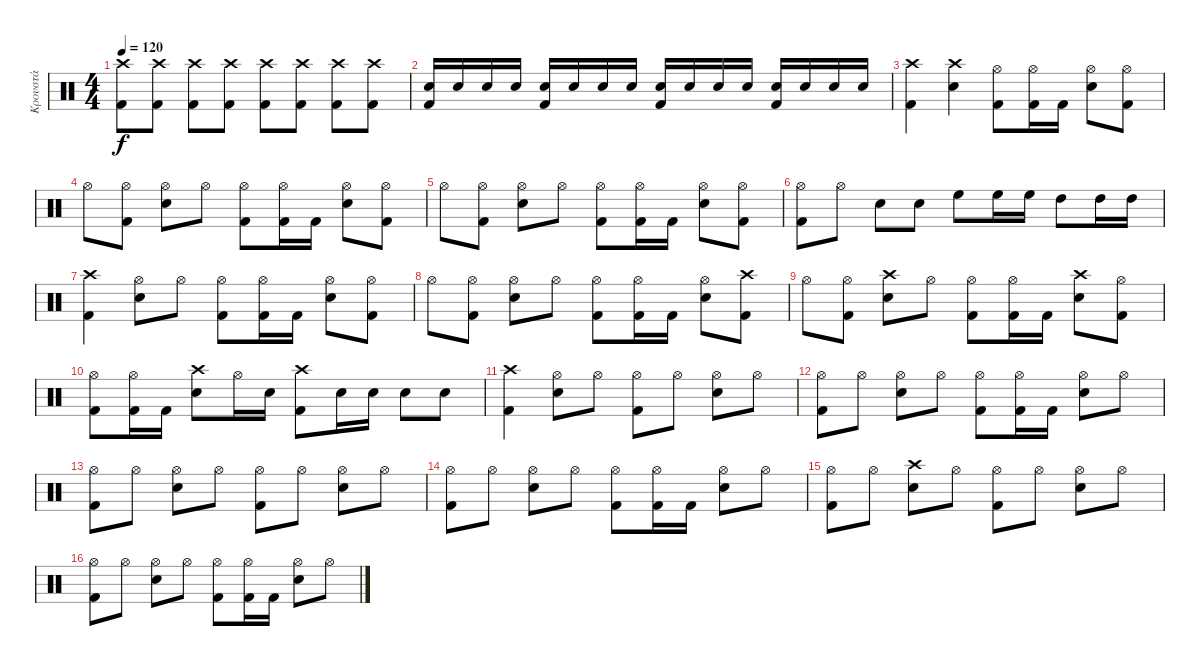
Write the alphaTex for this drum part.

\track ("Κρουστά" "Κρουστά") {instrument percussion}
\staff {score}
\articulation defaults
\ts (4 4)
\tempo 120
\clef neutral
\ks c
("Crash high (hit)" "Kick (hit) 2").8{dy f} ("Crash high (hit)" "Kick (hit) 2").8 ("Crash high (hit)" "Kick (hit) 2").8 ("Crash high (hit)" "Kick (hit) 2").8 ("Crash high (hit)" "Kick (hit) 2").8 ("Crash high (hit)" "Kick (hit) 2").8 ("Crash high (hit)" "Kick (hit) 2").8 ("Crash high (hit)" "Kick (hit) 2").8 |
("Electric Snare (hit)" "Kick (hit) 2").16 "Electric Snare (hit)".16 "Electric Snare (hit)".16 "Electric Snare (hit)".16 ("Electric Snare (hit)" "Kick (hit) 2").16 "Electric Snare (hit)".16 "Electric Snare (hit)".16 "Electric Snare (hit)".16 ("Electric Snare (hit)" "Kick (hit) 2").16 "Electric Snare (hit)".16 "Electric Snare (hit)".16 "Electric Snare (hit)".16 ("Electric Snare (hit)" "Kick (hit) 2").16 "Electric Snare (hit)".16 "Electric Snare (hit)".16 "Electric Snare (hit)".16 |
("Crash high (hit)" "Kick (hit) 2").4 ("Crash high (hit)" "Electric Snare (hit)").4 ("Hi-Hat (open)" "Kick (hit) 2").8 ("Hi-Hat (open)" "Kick (hit) 2").16 "Kick (hit) 2".16 ("Hi-Hat (open)" "Electric Snare (hit)").8 ("Hi-Hat (open)" "Kick (hit) 2").8 |
"Hi-Hat (open)".8 ("Hi-Hat (open)" "Kick (hit) 2").8 ("Hi-Hat (open)" "Electric Snare (hit)").8 "Hi-Hat (open)".8 ("Hi-Hat (open)" "Kick (hit) 2").8 ("Hi-Hat (open)" "Kick (hit) 2").16 "Kick (hit) 2".16 ("Hi-Hat (open)" "Electric Snare (hit)").8 ("Hi-Hat (open)" "Kick (hit) 2").8 |
"Hi-Hat (open)".8 ("Hi-Hat (open)" "Kick (hit) 2").8 ("Hi-Hat (open)" "Electric Snare (hit)").8 "Hi-Hat (open)".8 ("Hi-Hat (open)" "Kick (hit) 2").8 ("Hi-Hat (open)" "Kick (hit) 2").16 "Kick (hit) 2".16 ("Hi-Hat (open)" "Electric Snare (hit)").8 ("Hi-Hat (open)" "Kick (hit) 2").8 |
("Hi-Hat (open)" "Kick (hit) 2").8 "Hi-Hat (open)".8 "Electric Snare (hit)".8 "Electric Snare (hit)".8 "High Floor Tom (hit)".8 "High Floor Tom (hit)".16 "High Floor Tom (hit)".16 "High Tom (hit)".8 "High Tom (hit)".16 "High Tom (hit)".16 |
("Crash high (hit)" "Kick (hit) 2").4 ("Hi-Hat (open)" "Electric Snare (hit)").8 "Hi-Hat (open)".8 ("Hi-Hat (open)" "Kick (hit) 2").8 ("Hi-Hat (open)" "Kick (hit) 2").16 "Kick (hit) 2".16 ("Hi-Hat (open)" "Electric Snare (hit)").8 ("Hi-Hat (open)" "Kick (hit) 2").8 |
"Hi-Hat (open)".8 ("Hi-Hat (open)" "Kick (hit) 2").8 ("Hi-Hat (open)" "Electric Snare (hit)").8 "Hi-Hat (open)".8 ("Hi-Hat (open)" "Kick (hit) 2").8 ("Hi-Hat (open)" "Kick (hit) 2").16 "Kick (hit) 2".16 ("Hi-Hat (open)" "Electric Snare (hit)").8 ("Crash high (hit)" "Kick (hit) 2").8 |
"Hi-Hat (open)".8 ("Hi-Hat (open)" "Kick (hit) 2").8 ("Crash high (hit)" "Electric Snare (hit)").8 "Hi-Hat (open)".8 ("Hi-Hat (open)" "Kick (hit) 2").8 ("Hi-Hat (open)" "Kick (hit) 2").16 "Kick (hit) 2".16 ("Crash high (hit)" "Electric Snare (hit)").8 ("Hi-Hat (open)" "Kick (hit) 2").8 |
("Hi-Hat (open)" "Kick (hit) 2").8 ("Hi-Hat (open)" "Kick (hit) 2").16 "Kick (hit) 2".16 ("Crash high (hit)" "Electric Snare (hit)").8 "Hi-Hat (open)".16 "Electric Snare (hit)".16 ("Crash high (hit)" "Kick (hit) 2").8 "Electric Snare (hit)".16 "Electric Snare (hit)".16 "Electric Snare (hit)".8 "Electric Snare (hit)".8 |
("Crash high (hit)" "Kick (hit) 2").4 ("Hi-Hat (open)" "Electric Snare (hit)").8 "Hi-Hat (open)".8 ("Hi-Hat (open)" "Kick (hit) 2").8 "Hi-Hat (open)".8 ("Hi-Hat (open)" "Electric Snare (hit)").8 "Hi-Hat (open)".8 |
("Hi-Hat (open)" "Kick (hit) 2").8 "Hi-Hat (open)".8 ("Hi-Hat (open)" "Electric Snare (hit)").8 "Hi-Hat (open)".8 ("Hi-Hat (open)" "Kick (hit) 2").8 ("Hi-Hat (open)" "Kick (hit) 2").16 "Kick (hit) 2".16 ("Hi-Hat (open)" "Electric Snare (hit)").8 "Hi-Hat (open)".8 |
("Hi-Hat (open)" "Kick (hit) 2").8 "Hi-Hat (open)".8 ("Hi-Hat (open)" "Electric Snare (hit)").8 "Hi-Hat (open)".8 ("Hi-Hat (open)" "Kick (hit) 2").8 "Hi-Hat (open)".8 ("Hi-Hat (open)" "Electric Snare (hit)").8 "Hi-Hat (open)".8 |
("Hi-Hat (open)" "Kick (hit) 2").8 "Hi-Hat (open)".8 ("Hi-Hat (open)" "Electric Snare (hit)").8 "Hi-Hat (open)".8 ("Hi-Hat (open)" "Kick (hit) 2").8 ("Hi-Hat (open)" "Kick (hit) 2").16 "Kick (hit) 2".16 ("Hi-Hat (open)" "Electric Snare (hit)").8 "Hi-Hat (open)".8 |
("Hi-Hat (open)" "Kick (hit) 2").8 "Hi-Hat (open)".8 ("Crash high (hit)" "Electric Snare (hit)").8 "Hi-Hat (open)".8 ("Hi-Hat (open)" "Kick (hit) 2").8 "Hi-Hat (open)".8 ("Hi-Hat (open)" "Electric Snare (hit)").8 "Hi-Hat (open)".8 |
("Hi-Hat (open)" "Kick (hit) 2").8 "Hi-Hat (open)".8 ("Hi-Hat (open)" "Electric Snare (hit)").8 "Hi-Hat (open)".8 ("Hi-Hat (open)" "Kick (hit) 2").8 ("Hi-Hat (open)" "Kick (hit) 2").16 "Kick (hit) 2".16 ("Hi-Hat (open)" "Electric Snare (hit)").8 "Hi-Hat (open)".8
